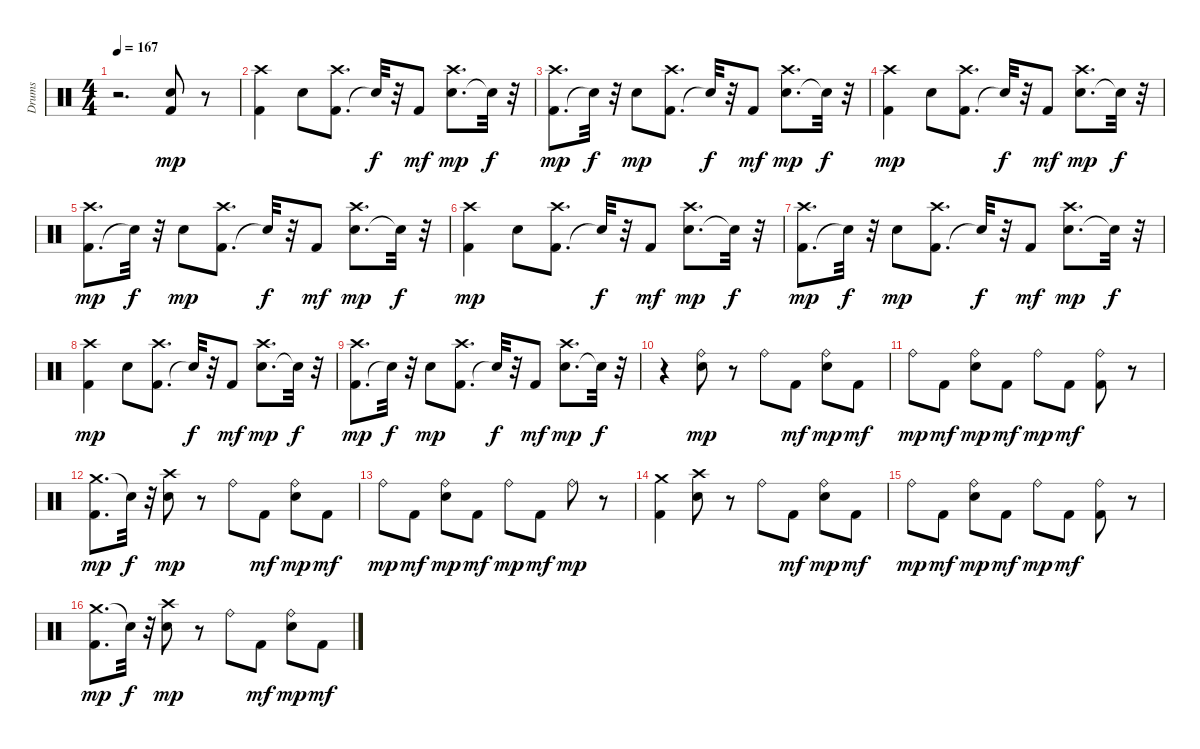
\track ("Drums" "Drums") {instrument percussion}
\staff {score}
\articulation defaults
\ts (4 4)
\tempo 167
\clef neutral
\ks c
r.2{d dy mp} ("Kick (hit) 2" "Electric Snare (hit)").8 r.8 |
("Kick (hit) 2" "Crash high (hit)").4 "Electric Snare (hit)".8 ("Kick (hit) 2" "Crash high (hit)").8{d} "Snare (hit)"{t}.32{dy f} r.32 "Kick (hit) 2".8{dy mf} ("Electric Snare (hit)" "Crash high (hit)").8{d dy mp} "Snare (hit)"{t}.32{dy f} r.32 |
("Kick (hit) 2" "Crash high (hit)").8{d dy mp} "Snare (hit)"{t}.32{dy f} r.32 "Electric Snare (hit)".8{dy mp} ("Kick (hit) 2" "Crash high (hit)").8{d} "Snare (hit)"{t}.32{dy f} r.32 "Kick (hit) 2".8{dy mf} ("Electric Snare (hit)" "Crash high (hit)").8{d dy mp} "Snare (hit)"{t}.32{dy f} r.32 |
("Kick (hit) 2" "Crash high (hit)").4{dy mp} "Electric Snare (hit)".8 ("Kick (hit) 2" "Crash high (hit)").8{d} "Snare (hit)"{t}.32{dy f} r.32 "Kick (hit) 2".8{dy mf} ("Electric Snare (hit)" "Crash high (hit)").8{d dy mp} "Snare (hit)"{t}.32{dy f} r.32 |
("Kick (hit) 2" "Crash high (hit)").8{d dy mp} "Snare (hit)"{t}.32{dy f} r.32 "Electric Snare (hit)".8{dy mp} ("Kick (hit) 2" "Crash high (hit)").8{d} "Snare (hit)"{t}.32{dy f} r.32 "Kick (hit) 2".8{dy mf} ("Electric Snare (hit)" "Crash high (hit)").8{d dy mp} "Snare (hit)"{t}.32{dy f} r.32 |
("Kick (hit) 2" "Crash high (hit)").4{dy mp} "Electric Snare (hit)".8 ("Kick (hit) 2" "Crash high (hit)").8{d} "Snare (hit)"{t}.32{dy f} r.32 "Kick (hit) 2".8{dy mf} ("Electric Snare (hit)" "Crash high (hit)").8{d dy mp} "Snare (hit)"{t}.32{dy f} r.32 |
("Kick (hit) 2" "Crash high (hit)").8{d dy mp} "Snare (hit)"{t}.32{dy f} r.32 "Electric Snare (hit)".8{dy mp} ("Kick (hit) 2" "Crash high (hit)").8{d} "Snare (hit)"{t}.32{dy f} r.32 "Kick (hit) 2".8{dy mf} ("Electric Snare (hit)" "Crash high (hit)").8{d dy mp} "Snare (hit)"{t}.32{dy f} r.32 |
("Kick (hit) 2" "Crash high (hit)").4{dy mp} "Electric Snare (hit)".8 ("Kick (hit) 2" "Crash high (hit)").8{d} "Snare (hit)"{t}.32{dy f} r.32 "Kick (hit) 2".8{dy mf} ("Electric Snare (hit)" "Crash high (hit)").8{d dy mp} "Snare (hit)"{t}.32{dy f} r.32 |
("Kick (hit) 2" "Crash high (hit)").8{d dy mp} "Snare (hit)"{t}.32{dy f} r.32 "Electric Snare (hit)".8{dy mp} ("Kick (hit) 2" "Crash high (hit)").8{d} "Snare (hit)"{t}.32{dy f} r.32 "Kick (hit) 2".8{dy mf} ("Electric Snare (hit)" "Crash high (hit)").8{d dy mp} "Snare (hit)"{t}.32{dy f} r.32 |
r.4 ("Electric Snare (hit)" "Ride (bell)").8{dy mp} r.8 "Ride (bell)".8 "Kick (hit) 2".8{dy mf} ("Electric Snare (hit)" "Ride (bell)").8{dy mp} "Kick (hit) 2".8{dy mf} |
"Ride (bell)".8{dy mp} "Kick (hit) 2".8{dy mf} ("Electric Snare (hit)" "Ride (bell)").8{dy mp} "Kick (hit) 2".8{dy mf} "Ride (bell)".8{dy mp} "Kick (hit) 2".8{dy mf} ("Ride (bell)" "Kick (hit) 2").8 r.8 |
("Crash medium (hit)" "Kick (hit) 2").8{d dy mp} "Snare (hit)"{t}.32{dy f} r.32 ("Electric Snare (hit)" "Crash high (hit)").8{dy mp} r.8 "Ride (bell)".8 "Kick (hit) 2".8{dy mf} ("Electric Snare (hit)" "Ride (bell)").8{dy mp} "Kick (hit) 2".8{dy mf} |
"Ride (bell)".8{dy mp} "Kick (hit) 2".8{dy mf} ("Electric Snare (hit)" "Ride (bell)").8{dy mp} "Kick (hit) 2".8{dy mf} "Ride (bell)".8{dy mp} "Kick (hit) 2".8{dy mf} "Ride (bell)".8{dy mp} r.8 |
("Kick (hit) 2" "Crash medium (hit)").4 ("Electric Snare (hit)" "Crash high (hit)").8 r.8 "Ride (bell)".8 "Kick (hit) 2".8{dy mf} ("Electric Snare (hit)" "Ride (bell)").8{dy mp} "Kick (hit) 2".8{dy mf} |
"Ride (bell)".8{dy mp} "Kick (hit) 2".8{dy mf} ("Electric Snare (hit)" "Ride (bell)").8{dy mp} "Kick (hit) 2".8{dy mf} "Ride (bell)".8{dy mp} "Kick (hit) 2".8{dy mf} ("Ride (bell)" "Kick (hit) 2").8 r.8 |
("Crash medium (hit)" "Kick (hit) 2").8{d dy mp} "Snare (hit)"{t}.32{dy f} r.32 ("Electric Snare (hit)" "Crash high (hit)").8{dy mp} r.8 "Ride (bell)".8 "Kick (hit) 2".8{dy mf} ("Electric Snare (hit)" "Ride (bell)").8{dy mp} "Kick (hit) 2".8{dy mf}
